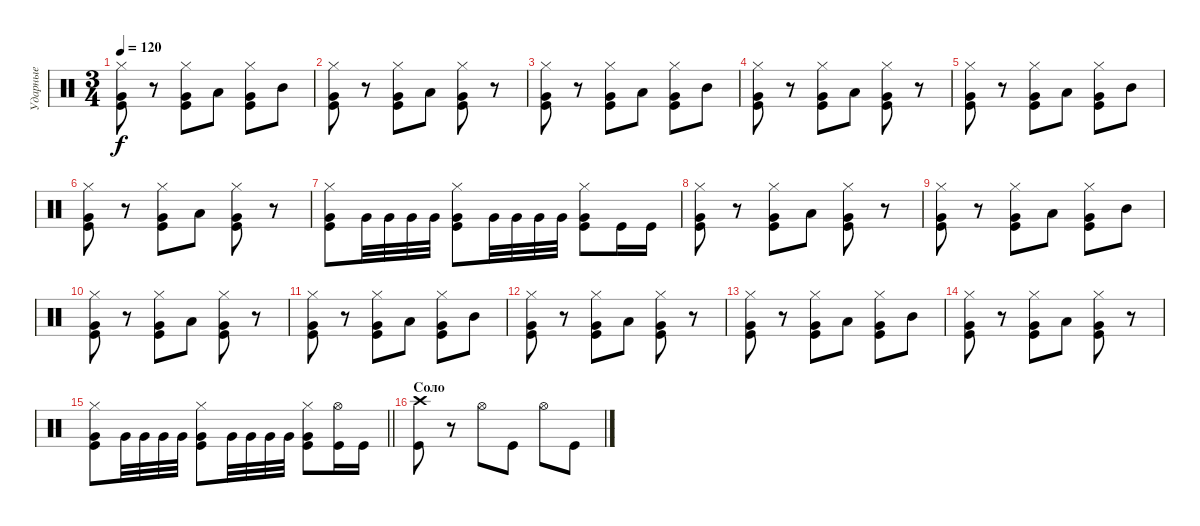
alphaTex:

\track ("Ударные" "Ударные") {instrument percussion}
\staff {score}
\articulation defaults
\ts (3 4)
\tempo 120
\clef neutral
\ks c
("Hi-Hat (closed)" "Very Low Tom (hit)" "Kick (hit)").8{dy f} r.8 ("Hi-Hat (closed)" "Very Low Tom (hit)" "Kick (hit)").8 "Low Tom (hit)".8 ("Hi-Hat (closed)" "Very Low Tom (hit)" "Kick (hit)").8 "Mid Tom (hit)".8 |
("Hi-Hat (closed)" "Very Low Tom (hit)" "Kick (hit)").8 r.8 ("Hi-Hat (closed)" "Very Low Tom (hit)" "Kick (hit)").8 "Low Tom (hit)".8 ("Hi-Hat (closed)" "Very Low Tom (hit)" "Kick (hit)").8 r.8 |
("Hi-Hat (closed)" "Very Low Tom (hit)" "Kick (hit)").8 r.8 ("Hi-Hat (closed)" "Very Low Tom (hit)" "Kick (hit)").8 "Low Tom (hit)".8 ("Hi-Hat (closed)" "Very Low Tom (hit)" "Kick (hit)").8 "Mid Tom (hit)".8 |
("Hi-Hat (closed)" "Very Low Tom (hit)" "Kick (hit)").8 r.8 ("Hi-Hat (closed)" "Very Low Tom (hit)" "Kick (hit)").8 "Low Tom (hit)".8 ("Hi-Hat (closed)" "Very Low Tom (hit)" "Kick (hit)").8 r.8 |
("Hi-Hat (closed)" "Very Low Tom (hit)" "Kick (hit)").8 r.8 ("Hi-Hat (closed)" "Very Low Tom (hit)" "Kick (hit)").8 "Low Tom (hit)".8 ("Hi-Hat (closed)" "Very Low Tom (hit)" "Kick (hit)").8 "Mid Tom (hit)".8 |
("Hi-Hat (closed)" "Very Low Tom (hit)" "Kick (hit)").8 r.8 ("Hi-Hat (closed)" "Very Low Tom (hit)" "Kick (hit)").8 "Low Tom (hit)".8 ("Hi-Hat (closed)" "Very Low Tom (hit)" "Kick (hit)").8 r.8 |
("Hi-Hat (closed)" "Very Low Tom (hit)" "Kick (hit)").8 "Very Low Tom (hit)".32 "Very Low Tom (hit)".32 "Very Low Tom (hit)".32 "Very Low Tom (hit)".32 ("Hi-Hat (closed)" "Very Low Tom (hit)" "Kick (hit)").8 "Very Low Tom (hit)".32 "Very Low Tom (hit)".32 "Very Low Tom (hit)".32 "Very Low Tom (hit)".32 ("Hi-Hat (closed)" "Very Low Tom (hit)" "Kick (hit)").8 "Kick (hit)".16 "Kick (hit)".16 |
("Hi-Hat (closed)" "Very Low Tom (hit)" "Kick (hit)").8 r.8 ("Hi-Hat (closed)" "Very Low Tom (hit)" "Kick (hit)").8 "Low Tom (hit)".8 ("Hi-Hat (closed)" "Very Low Tom (hit)" "Kick (hit)").8 r.8 |
("Hi-Hat (closed)" "Very Low Tom (hit)" "Kick (hit)").8 r.8 ("Hi-Hat (closed)" "Very Low Tom (hit)" "Kick (hit)").8 "Low Tom (hit)".8 ("Hi-Hat (closed)" "Very Low Tom (hit)" "Kick (hit)").8 "Mid Tom (hit)".8 |
("Hi-Hat (closed)" "Very Low Tom (hit)" "Kick (hit)").8 r.8 ("Hi-Hat (closed)" "Very Low Tom (hit)" "Kick (hit)").8 "Low Tom (hit)".8 ("Hi-Hat (closed)" "Very Low Tom (hit)" "Kick (hit)").8 r.8 |
("Hi-Hat (closed)" "Very Low Tom (hit)" "Kick (hit)").8 r.8 ("Hi-Hat (closed)" "Very Low Tom (hit)" "Kick (hit)").8 "Low Tom (hit)".8 ("Hi-Hat (closed)" "Very Low Tom (hit)" "Kick (hit)").8 "Mid Tom (hit)".8 |
("Hi-Hat (closed)" "Very Low Tom (hit)" "Kick (hit)").8 r.8 ("Hi-Hat (closed)" "Very Low Tom (hit)" "Kick (hit)").8 "Low Tom (hit)".8 ("Hi-Hat (closed)" "Very Low Tom (hit)" "Kick (hit)").8 r.8 |
("Hi-Hat (closed)" "Very Low Tom (hit)" "Kick (hit)").8 r.8 ("Hi-Hat (closed)" "Very Low Tom (hit)" "Kick (hit)").8 "Low Tom (hit)".8 ("Hi-Hat (closed)" "Very Low Tom (hit)" "Kick (hit)").8 "Mid Tom (hit)".8 |
("Hi-Hat (closed)" "Very Low Tom (hit)" "Kick (hit)").8 r.8 ("Hi-Hat (closed)" "Very Low Tom (hit)" "Kick (hit)").8 "Low Tom (hit)".8 ("Hi-Hat (closed)" "Very Low Tom (hit)" "Kick (hit)").8 r.8 |
\barLineRight lightlight
("Hi-Hat (closed)" "Very Low Tom (hit)" "Kick (hit)").8 "Very Low Tom (hit)".32 "Very Low Tom (hit)".32 "Very Low Tom (hit)".32 "Very Low Tom (hit)".32 ("Hi-Hat (closed)" "Very Low Tom (hit)" "Kick (hit)").8 "Very Low Tom (hit)".32 "Very Low Tom (hit)".32 "Very Low Tom (hit)".32 "Very Low Tom (hit)".32 ("Hi-Hat (closed)" "Very Low Tom (hit)" "Kick (hit)").8 ("Hi-Hat (open)" "Kick (hit)").16 "Kick (hit)".16 |
\section ("" "Соло")
("Crash high (hit)" "Kick (hit)").8 r.8 "Hi-Hat (open)".8 "Kick (hit)".8 "Hi-Hat (open)".8 "Kick (hit)".8
